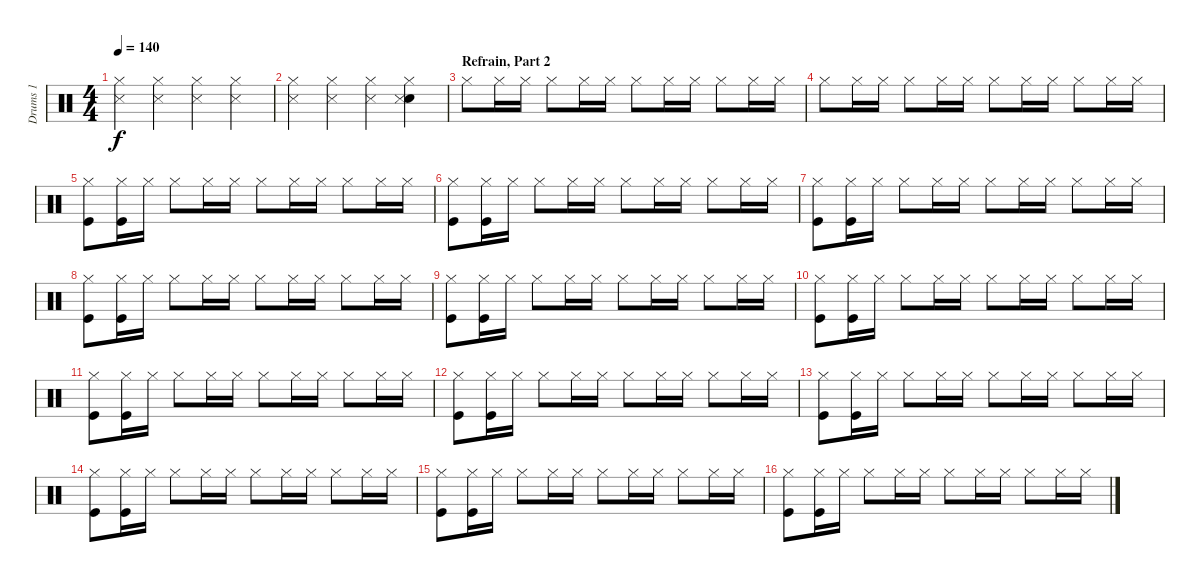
\track ("Drums 1" "Drums 1") {instrument percussion}
\staff {score}
\articulation defaults
\ts (4 4)
\tempo 140
\clef neutral
\ks c
("Hi-Hat (closed)" "Snare (side stick) 3").4{dy f} ("Hi-Hat (closed)" "Snare (side stick) 3").4 ("Hi-Hat (closed)" "Snare (side stick) 3").4 ("Hi-Hat (closed)" "Snare (side stick) 3").4 |
("Hi-Hat (closed)" "Snare (side stick) 3").4 ("Hi-Hat (closed)" "Snare (side stick) 3").4 ("Hi-Hat (closed)" "Snare (side stick) 3").4 ("Hi-Hat (closed)" "Snare (hit) 2" "Snare (side stick) 3").4 |
\section ("" "Refrain, Part 2")
"Hi-Hat (closed)".8 "Hi-Hat (closed)".16 "Hi-Hat (closed)".16 "Hi-Hat (closed)".8 "Hi-Hat (closed)".16 "Hi-Hat (closed)".16 "Hi-Hat (closed)".8 "Hi-Hat (closed)".16 "Hi-Hat (closed)".16 "Hi-Hat (closed)".8 "Hi-Hat (closed)".16 "Hi-Hat (closed)".16 |
"Hi-Hat (closed)".8 "Hi-Hat (closed)".16 "Hi-Hat (closed)".16 "Hi-Hat (closed)".8 "Hi-Hat (closed)".16 "Hi-Hat (closed)".16 "Hi-Hat (closed)".8 "Hi-Hat (closed)".16 "Hi-Hat (closed)".16 "Hi-Hat (closed)".8 "Hi-Hat (closed)".16 "Hi-Hat (closed)".16 |
("Kick (hit)" "Hi-Hat (closed)").8 ("Kick (hit)" "Hi-Hat (closed)").16 "Hi-Hat (closed)".16 "Hi-Hat (closed)".8 "Hi-Hat (closed)".16 "Hi-Hat (closed)".16 "Hi-Hat (closed)".8 "Hi-Hat (closed)".16 "Hi-Hat (closed)".16 "Hi-Hat (closed)".8 "Hi-Hat (closed)".16 "Hi-Hat (closed)".16 |
("Kick (hit)" "Hi-Hat (closed)").8 ("Kick (hit)" "Hi-Hat (closed)").16 "Hi-Hat (closed)".16 "Hi-Hat (closed)".8 "Hi-Hat (closed)".16 "Hi-Hat (closed)".16 "Hi-Hat (closed)".8 "Hi-Hat (closed)".16 "Hi-Hat (closed)".16 "Hi-Hat (closed)".8 "Hi-Hat (closed)".16 "Hi-Hat (closed)".16 |
("Kick (hit)" "Hi-Hat (closed)").8 ("Kick (hit)" "Hi-Hat (closed)").16 "Hi-Hat (closed)".16 "Hi-Hat (closed)".8 "Hi-Hat (closed)".16 "Hi-Hat (closed)".16 "Hi-Hat (closed)".8 "Hi-Hat (closed)".16 "Hi-Hat (closed)".16 "Hi-Hat (closed)".8 "Hi-Hat (closed)".16 "Hi-Hat (closed)".16 |
("Kick (hit)" "Hi-Hat (closed)").8 ("Kick (hit)" "Hi-Hat (closed)").16 "Hi-Hat (closed)".16 "Hi-Hat (closed)".8 "Hi-Hat (closed)".16 "Hi-Hat (closed)".16 "Hi-Hat (closed)".8 "Hi-Hat (closed)".16 "Hi-Hat (closed)".16 "Hi-Hat (closed)".8 "Hi-Hat (closed)".16 "Hi-Hat (closed)".16 |
("Kick (hit)" "Hi-Hat (closed)").8 ("Kick (hit)" "Hi-Hat (closed)").16 "Hi-Hat (closed)".16 "Hi-Hat (closed)".8 "Hi-Hat (closed)".16 "Hi-Hat (closed)".16 "Hi-Hat (closed)".8 "Hi-Hat (closed)".16 "Hi-Hat (closed)".16 "Hi-Hat (closed)".8 "Hi-Hat (closed)".16 "Hi-Hat (closed)".16 |
("Kick (hit)" "Hi-Hat (closed)").8 ("Kick (hit)" "Hi-Hat (closed)").16 "Hi-Hat (closed)".16 "Hi-Hat (closed)".8 "Hi-Hat (closed)".16 "Hi-Hat (closed)".16 "Hi-Hat (closed)".8 "Hi-Hat (closed)".16 "Hi-Hat (closed)".16 "Hi-Hat (closed)".8 "Hi-Hat (closed)".16 "Hi-Hat (closed)".16 |
("Kick (hit)" "Hi-Hat (closed)").8 ("Kick (hit)" "Hi-Hat (closed)").16 "Hi-Hat (closed)".16 "Hi-Hat (closed)".8 "Hi-Hat (closed)".16 "Hi-Hat (closed)".16 "Hi-Hat (closed)".8 "Hi-Hat (closed)".16 "Hi-Hat (closed)".16 "Hi-Hat (closed)".8 "Hi-Hat (closed)".16 "Hi-Hat (closed)".16 |
("Kick (hit)" "Hi-Hat (closed)").8 ("Kick (hit)" "Hi-Hat (closed)").16 "Hi-Hat (closed)".16 "Hi-Hat (closed)".8 "Hi-Hat (closed)".16 "Hi-Hat (closed)".16 "Hi-Hat (closed)".8 "Hi-Hat (closed)".16 "Hi-Hat (closed)".16 "Hi-Hat (closed)".8 "Hi-Hat (closed)".16 "Hi-Hat (closed)".16 |
("Kick (hit)" "Hi-Hat (closed)").8 ("Kick (hit)" "Hi-Hat (closed)").16 "Hi-Hat (closed)".16 "Hi-Hat (closed)".8 "Hi-Hat (closed)".16 "Hi-Hat (closed)".16 "Hi-Hat (closed)".8 "Hi-Hat (closed)".16 "Hi-Hat (closed)".16 "Hi-Hat (closed)".8 "Hi-Hat (closed)".16 "Hi-Hat (closed)".16 |
("Kick (hit)" "Hi-Hat (closed)").8 ("Kick (hit)" "Hi-Hat (closed)").16 "Hi-Hat (closed)".16 "Hi-Hat (closed)".8 "Hi-Hat (closed)".16 "Hi-Hat (closed)".16 "Hi-Hat (closed)".8 "Hi-Hat (closed)".16 "Hi-Hat (closed)".16 "Hi-Hat (closed)".8 "Hi-Hat (closed)".16 "Hi-Hat (closed)".16 |
("Kick (hit)" "Hi-Hat (closed)").8 ("Kick (hit)" "Hi-Hat (closed)").16 "Hi-Hat (closed)".16 "Hi-Hat (closed)".8 "Hi-Hat (closed)".16 "Hi-Hat (closed)".16 "Hi-Hat (closed)".8 "Hi-Hat (closed)".16 "Hi-Hat (closed)".16 "Hi-Hat (closed)".8 "Hi-Hat (closed)".16 "Hi-Hat (closed)".16 |
("Kick (hit)" "Hi-Hat (closed)").8 ("Kick (hit)" "Hi-Hat (closed)").16 "Hi-Hat (closed)".16 "Hi-Hat (closed)".8 "Hi-Hat (closed)".16 "Hi-Hat (closed)".16 "Hi-Hat (closed)".8 "Hi-Hat (closed)".16 "Hi-Hat (closed)".16 "Hi-Hat (closed)".8 "Hi-Hat (closed)".16 "Hi-Hat (closed)".16
